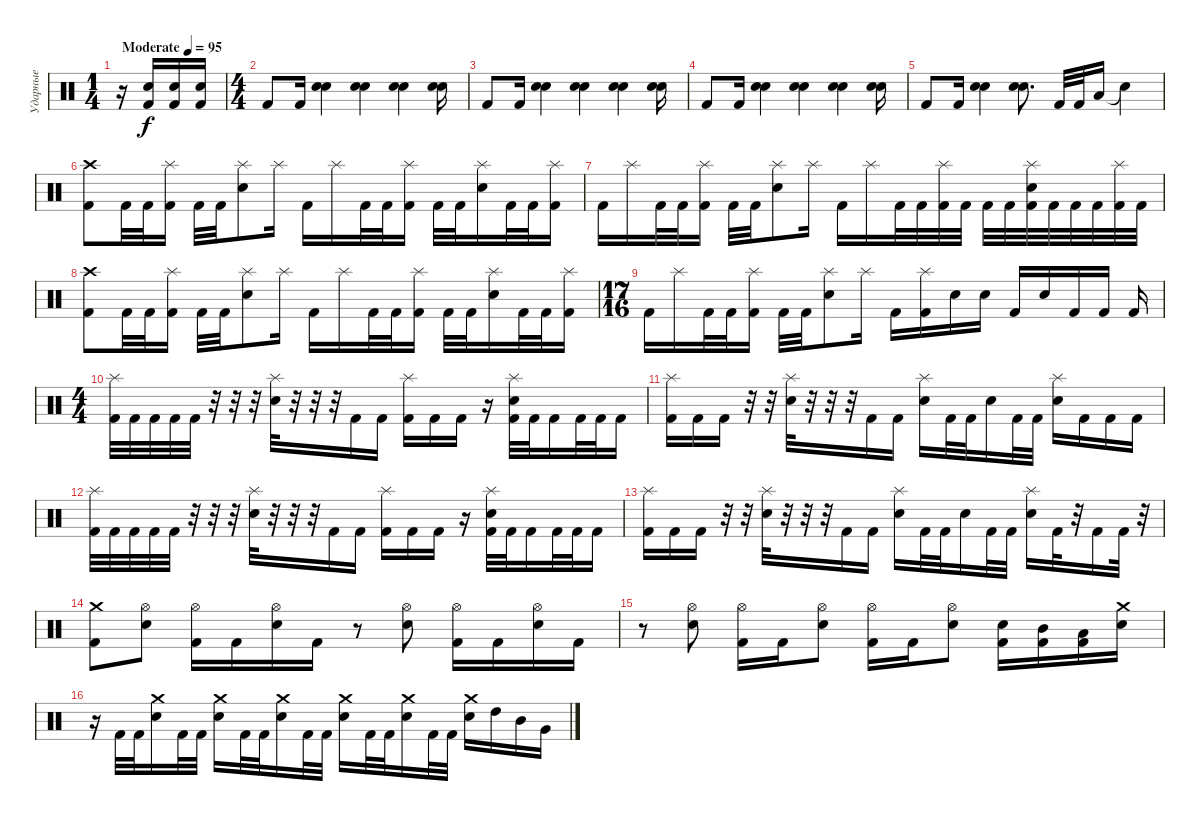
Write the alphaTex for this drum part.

\track ("Ударные" "Ударные") {instrument percussion}
\staff {score}
\articulation defaults
\ts (1 4)
\tempo (95 "Moderate")
\clef neutral
\ks c
r.16{dy f} ("Snare (hit) 2" "Kick (hit) 2").16 ("Snare (hit) 2" "Kick (hit) 2").16 ("Snare (hit) 2" "Kick (hit) 2").16 |
\ts (4 4)
"Kick (hit) 2".8 "Kick (hit) 2".16 ("Hand Clap (hit)" "Snare (hit) 2").4 ("Hand Clap (hit)" "Snare (hit) 2").4 ("Hand Clap (hit)" "Snare (hit) 2").4 ("Hand Clap (hit)" "Snare (hit) 2").16 |
"Kick (hit) 2".8 "Kick (hit) 2".16 ("Hand Clap (hit)" "Snare (hit) 2").4 ("Hand Clap (hit)" "Snare (hit) 2").4 ("Hand Clap (hit)" "Snare (hit) 2").4 ("Hand Clap (hit)" "Snare (hit) 2").16 |
"Kick (hit) 2".8 "Kick (hit) 2".16 ("Hand Clap (hit)" "Snare (hit) 2").4 ("Hand Clap (hit)" "Snare (hit) 2").4 ("Hand Clap (hit)" "Snare (hit) 2").4 ("Hand Clap (hit)" "Snare (hit) 2").16 |
"Kick (hit) 2".8 "Kick (hit) 2".16 ("Hand Clap (hit)" "Snare (hit) 2").4 ("Hand Clap (hit)" "Snare (hit) 2").8{d} "Kick (hit) 2".32 "Kick (hit) 2".32 "Low Floor Tom (hit)".16 "Snare (hit)"{t}.4 |
("Crash high (hit)" "Kick (hit) 2").8 "Kick (hit) 2".32 "Kick (hit) 2".32 ("Splash (hit)" "Kick (hit) 2").16 "Kick (hit) 2".32 "Kick (hit) 2".32 ("Splash (hit)" "Snare (hit) 2").8 "Splash (hit)".16 "Kick (hit) 2".16 "Splash (hit)".16 "Kick (hit) 2".32 "Kick (hit) 2".32 ("Splash (hit)" "Kick (hit) 2").16 "Kick (hit) 2".32 "Kick (hit) 2".32 ("Splash (hit)" "Snare (hit) 2").16 "Kick (hit) 2".32 "Kick (hit) 2".32 ("Splash (hit)" "Kick (hit) 2").16 |
"Kick (hit) 2".16 "Splash (hit)".16 "Kick (hit) 2".32 "Kick (hit) 2".32 ("Splash (hit)" "Kick (hit) 2").16 "Kick (hit) 2".32 "Kick (hit) 2".32 ("Splash (hit)" "Snare (hit) 2").8 "Splash (hit)".16 "Kick (hit) 2".16 "Splash (hit)".16 "Kick (hit) 2".32 "Kick (hit) 2".32 ("Splash (hit)" "Kick (hit) 2").32 "Kick (hit) 2".32 "Kick (hit) 2".32 "Kick (hit) 2".32 ("Splash (hit)" "Snare (hit) 2" "Kick (hit) 2").32 "Kick (hit) 2".32 "Kick (hit) 2".32 "Kick (hit) 2".32 ("Splash (hit)" "Kick (hit) 2").32 "Kick (hit) 2".32 |
("Crash high (hit)" "Kick (hit) 2").8 "Kick (hit) 2".32 "Kick (hit) 2".32 ("Splash (hit)" "Kick (hit) 2").16 "Kick (hit) 2".32 "Kick (hit) 2".32 ("Splash (hit)" "Snare (hit) 2").8 "Splash (hit)".16 "Kick (hit) 2".16 "Splash (hit)".16 "Kick (hit) 2".32 "Kick (hit) 2".32 ("Splash (hit)" "Kick (hit) 2").16 "Kick (hit) 2".32 "Kick (hit) 2".32 ("Splash (hit)" "Snare (hit) 2").16 "Kick (hit) 2".32 "Kick (hit) 2".32 ("Splash (hit)" "Kick (hit) 2").16 |
\ts (17 16)
"Kick (hit) 2".16 "Splash (hit)".16 "Kick (hit) 2".32 "Kick (hit) 2".32 ("Splash (hit)" "Kick (hit) 2").16 "Kick (hit) 2".32 "Kick (hit) 2".32 ("Splash (hit)" "Snare (hit) 2").8 "Splash (hit)".16 "Kick (hit) 2".16 ("Splash (hit)" "Kick (hit) 2").16 "Snare (hit) 2".16 "Snare (hit) 2".16 "Kick (hit) 2".16 "Snare (hit) 2".16 "Kick (hit) 2".16 "Kick (hit) 2".16 "Kick (hit) 2".16 |
\ts (4 4)
("Splash (hit)" "Kick (hit) 2").32 "Kick (hit) 2".32 "Kick (hit) 2".32 "Kick (hit) 2".32 "Kick (hit) 2".32 r.32 r.32 r.32 ("Splash (hit)" "Snare (hit) 2").32 r.32 r.32 r.32 "Kick (hit) 2".16 "Kick (hit) 2".16 ("Splash (hit)" "Kick (hit) 2").16 "Kick (hit) 2".16 "Kick (hit) 2".16 r.16 ("Splash (hit)" "Snare (hit) 2" "Kick (hit) 2").32 "Kick (hit) 2".32 "Kick (hit) 2".16 "Kick (hit) 2".32 "Kick (hit) 2".32 "Kick (hit) 2".16 |
("Splash (hit)" "Kick (hit) 2").16 "Kick (hit) 2".16 "Kick (hit) 2".16 r.32 r.32 ("Splash (hit)" "Snare (hit) 2").32 r.32 r.32 r.32 "Kick (hit) 2".16 "Kick (hit) 2".16 ("Splash (hit)" "Snare (hit) 2").16 "Kick (hit) 2".32 "Kick (hit) 2".32 "Snare (hit) 2".16 "Kick (hit) 2".32 "Kick (hit) 2".32 ("Splash (hit)" "Snare (hit) 2").16 "Kick (hit) 2".16 "Kick (hit) 2".16 "Kick (hit) 2".16 |
("Splash (hit)" "Kick (hit) 2").32 "Kick (hit) 2".32 "Kick (hit) 2".32 "Kick (hit) 2".32 "Kick (hit) 2".32 r.32 r.32 r.32 ("Splash (hit)" "Snare (hit) 2").32 r.32 r.32 r.32 "Kick (hit) 2".16 "Kick (hit) 2".16 ("Splash (hit)" "Kick (hit) 2").16 "Kick (hit) 2".16 "Kick (hit) 2".16 r.16 ("Splash (hit)" "Snare (hit) 2" "Kick (hit) 2").32 "Kick (hit) 2".32 "Kick (hit) 2".16 "Kick (hit) 2".32 "Kick (hit) 2".32 "Kick (hit) 2".16 |
("Splash (hit)" "Kick (hit) 2").16 "Kick (hit) 2".16 "Kick (hit) 2".16 r.32 r.32 ("Splash (hit)" "Snare (hit) 2").32 r.32 r.32 r.32 "Kick (hit) 2".16 "Kick (hit) 2".16 ("Splash (hit)" "Snare (hit) 2").16 "Kick (hit) 2".32 "Kick (hit) 2".32 "Snare (hit) 2".16 "Kick (hit) 2".32 "Kick (hit) 2".32 ("Splash (hit)" "Snare (hit) 2").16 "Kick (hit) 2".32 r.32 "Kick (hit) 2".16 "Kick (hit) 2".32 r.32 |
("Crash medium (hit)" "Kick (hit) 2").8 ("Hi-Hat (open)" "Snare (hit) 2").8 ("Hi-Hat (open)" "Kick (hit) 2").16 "Kick (hit) 2".16 ("Hi-Hat (open)" "Snare (hit) 2").16 "Kick (hit) 2".16 r.8 ("Hi-Hat (open)" "Snare (hit) 2").8 ("Hi-Hat (open)" "Kick (hit) 2").16 "Kick (hit) 2".16 ("Hi-Hat (open)" "Snare (hit) 2").16 "Kick (hit) 2".16 |
r.8 ("Hi-Hat (open)" "Snare (hit) 2").8 ("Hi-Hat (open)" "Kick (hit) 2").16 "Kick (hit) 2".16 ("Hi-Hat (open)" "Snare (hit) 2").8 ("Hi-Hat (open)" "Kick (hit) 2").16 "Kick (hit) 2".16 ("Hi-Hat (open)" "Snare (hit) 2").8 ("Snare (hit) 2" "Kick (hit) 2").16 ("Mid Tom (hit)" "Kick (hit) 2").16 ("Low Tom (hit)" "Kick (hit) 2").16 ("Crash medium (hit)" "Snare (hit) 2").16 |
r.16 "Kick (hit) 2".32 "Kick (hit) 2".32 ("Crash medium (hit)" "Snare (hit) 2").16 "Kick (hit) 2".32 "Kick (hit) 2".32 ("Crash medium (hit)" "Snare (hit) 2").16 "Kick (hit) 2".32 "Kick (hit) 2".32 ("Crash medium (hit)" "Snare (hit) 2").16 "Kick (hit) 2".32 "Kick (hit) 2".32 ("Crash medium (hit)" "Snare (hit) 2").16 "Kick (hit) 2".32 "Kick (hit) 2".32 ("Crash medium (hit)" "Snare (hit) 2").16 "Kick (hit) 2".32 "Kick (hit) 2".32 ("Crash medium (hit)" "Snare (hit) 2").16 "High Tom (hit)".16 "Mid Tom (hit)".16 "Very Low Tom (hit)".16
